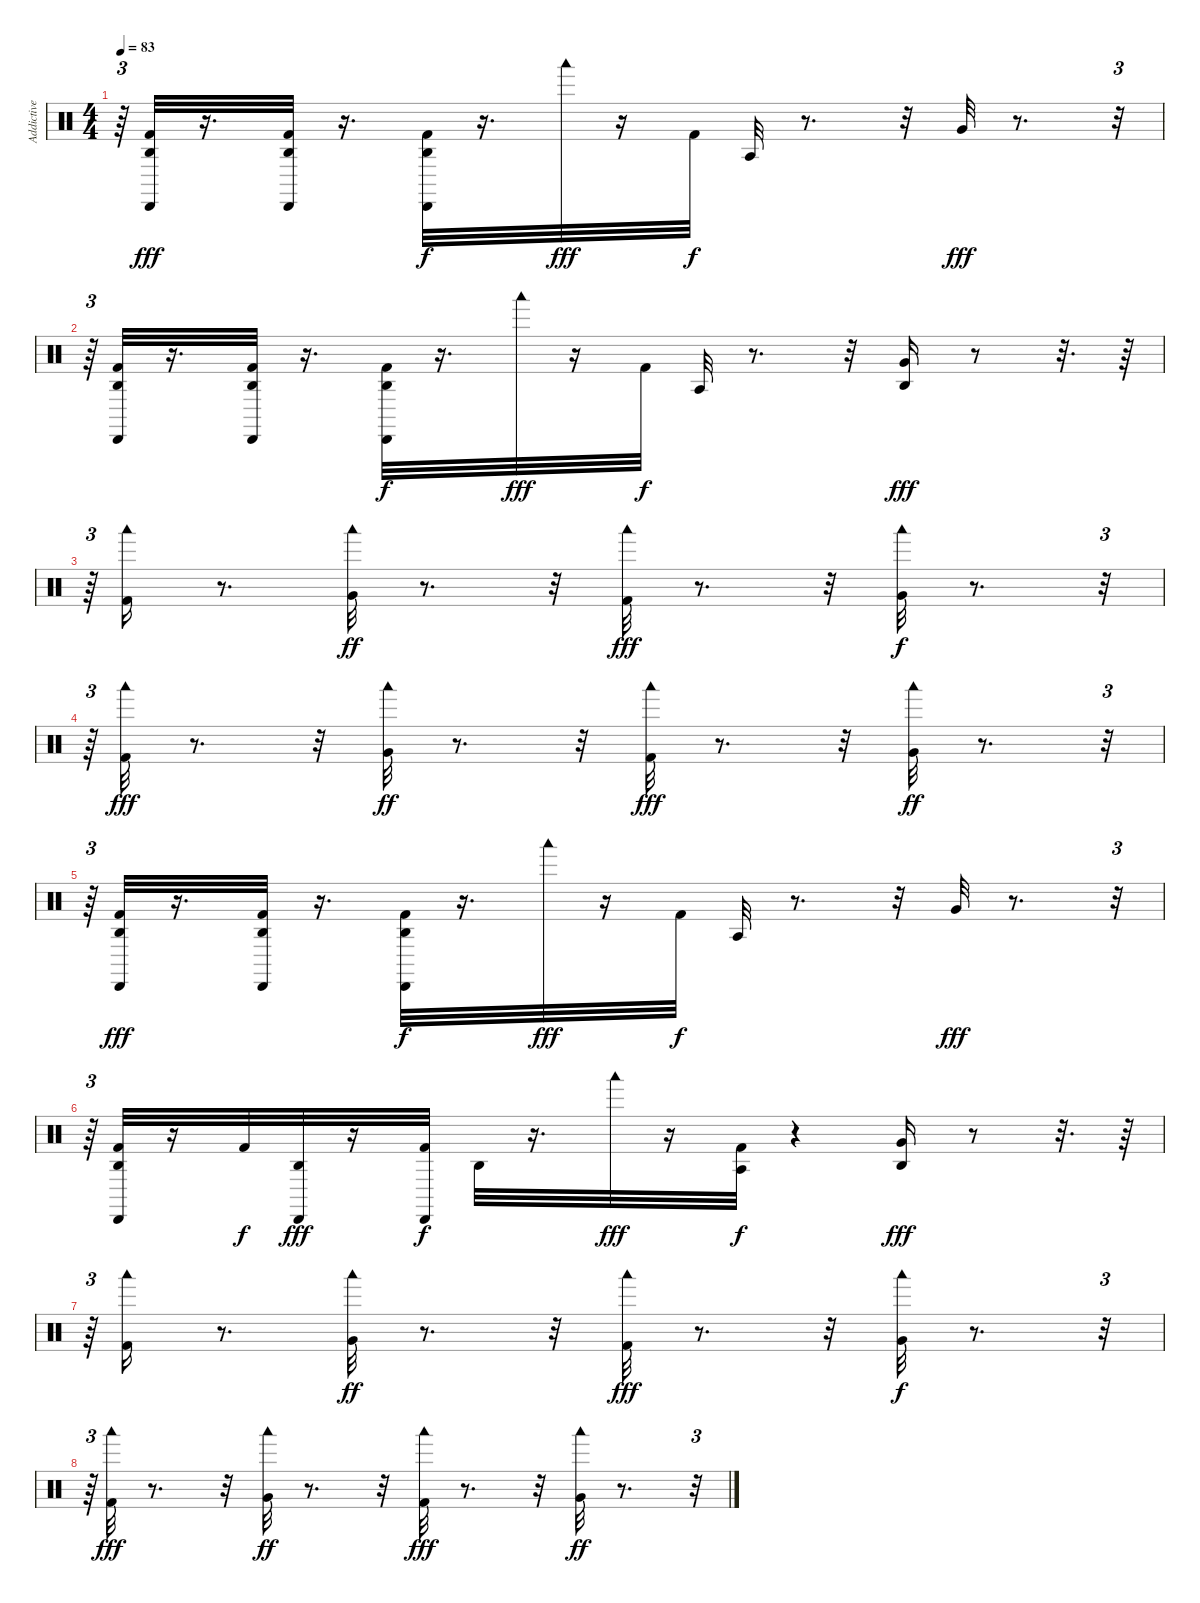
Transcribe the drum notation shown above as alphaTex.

\track ("Addictive Drums 2 01" "Addictive ") {instrument percussion}
\staff {score}
\articulation defaults
\ts (4 4)
\tempo 83
\clef neutral
\ks c
r.64{tu (3 2) dy ff} ("Kick (hit) 2" "Cabasa (hit)" "Agogo high (hit)").32{dy fff} r.16{d} ("Kick (hit) 2" "Cabasa (hit)" "Agogo high (hit)").32 r.16{d} ("Cabasa (hit)" "Kick (hit) 2" "Agogo high (hit)").32{dy f} r.16{d} "Woodblock low (hit)".32{dy fff} r.16 "Kick (hit) 2".32{dy f} "Agogo tow (hit)".32 r.8{d} r.32 "Very Low Tom (hit)".32{dy fff} r.8{d} r.32{tu (3 2)} |
r.64{tu (3 2)} ("Kick (hit) 2" "Cabasa (hit)" "Agogo high (hit)").32 r.16{d} ("Kick (hit) 2" "Cabasa (hit)" "Agogo high (hit)").32 r.16{d} ("Cabasa (hit)" "Kick (hit) 2" "Agogo high (hit)").32{dy f} r.16{d} "Woodblock low (hit)".32{dy fff} r.16 "Kick (hit) 2".32{dy f} "Agogo tow (hit)".32 r.8{d} r.32 ("Very Low Tom (hit)" "Agogo high (hit)").16{dy fff} r.8 r.32{d} r.64 |
r.64{tu (3 2)} ("Woodblock low (hit)" "Kick (hit) 2").16 r.8{d} ("Woodblock low (hit)" "Very Low Tom (hit)").32{dy ff} r.8{d} r.32 ("Kick (hit) 2" "Woodblock low (hit)").32{dy fff} r.8{d} r.32 ("Very Low Tom (hit)" "Woodblock low (hit)").32{dy f} r.8{d} r.32{tu (3 2)} |
r.64{tu (3 2)} ("Woodblock low (hit)" "Kick (hit) 2").32{dy fff} r.8{d} r.32 ("Very Low Tom (hit)" "Woodblock low (hit)").32{dy ff} r.8{d} r.32 ("Kick (hit) 2" "Woodblock low (hit)").32{dy fff} r.8{d} r.32 ("Very Low Tom (hit)" "Woodblock low (hit)").32{dy ff} r.8{d} r.32{tu (3 2)} |
r.64{tu (3 2)} ("Kick (hit) 2" "Cabasa (hit)" "Agogo high (hit)").32{dy fff} r.16{d} ("Kick (hit) 2" "Cabasa (hit)" "Agogo high (hit)").32 r.16{d} ("Cabasa (hit)" "Kick (hit) 2" "Agogo high (hit)").32{dy f} r.16{d} "Woodblock low (hit)".32{dy fff} r.16 "Kick (hit) 2".32{dy f} "Agogo tow (hit)".32 r.8{d} r.32 "Very Low Tom (hit)".32{dy fff} r.8{d} r.32{tu (3 2)} |
r.64{tu (3 2)} ("Kick (hit) 2" "Cabasa (hit)" "Agogo high (hit)").32 r.16 "Kick (hit) 2".32{dy f} ("Cabasa (hit)" "Agogo high (hit)").32{dy fff} r.16 ("Cabasa (hit)" "Kick (hit) 2").32{dy f} "Agogo high (hit)".32 r.16{d} "Woodblock low (hit)".32{dy fff} r.16 ("Kick (hit) 2" "Agogo tow (hit)").32{dy f} r.4 ("Very Low Tom (hit)" "Agogo high (hit)").16{dy fff} r.8 r.32{d} r.64 |
r.64{tu (3 2)} ("Woodblock low (hit)" "Kick (hit) 2").16 r.8{d} ("Woodblock low (hit)" "Very Low Tom (hit)").32{dy ff} r.8{d} r.32 ("Kick (hit) 2" "Woodblock low (hit)").32{dy fff} r.8{d} r.32 ("Very Low Tom (hit)" "Woodblock low (hit)").32{dy f} r.8{d} r.32{tu (3 2)} |
r.64{tu (3 2)} ("Woodblock low (hit)" "Kick (hit) 2").32{dy fff} r.8{d} r.32 ("Very Low Tom (hit)" "Woodblock low (hit)").32{dy ff} r.8{d} r.32 ("Kick (hit) 2" "Woodblock low (hit)").32{dy fff} r.8{d} r.32 ("Very Low Tom (hit)" "Woodblock low (hit)").32{dy ff} r.8{d} r.32{tu (3 2)}
